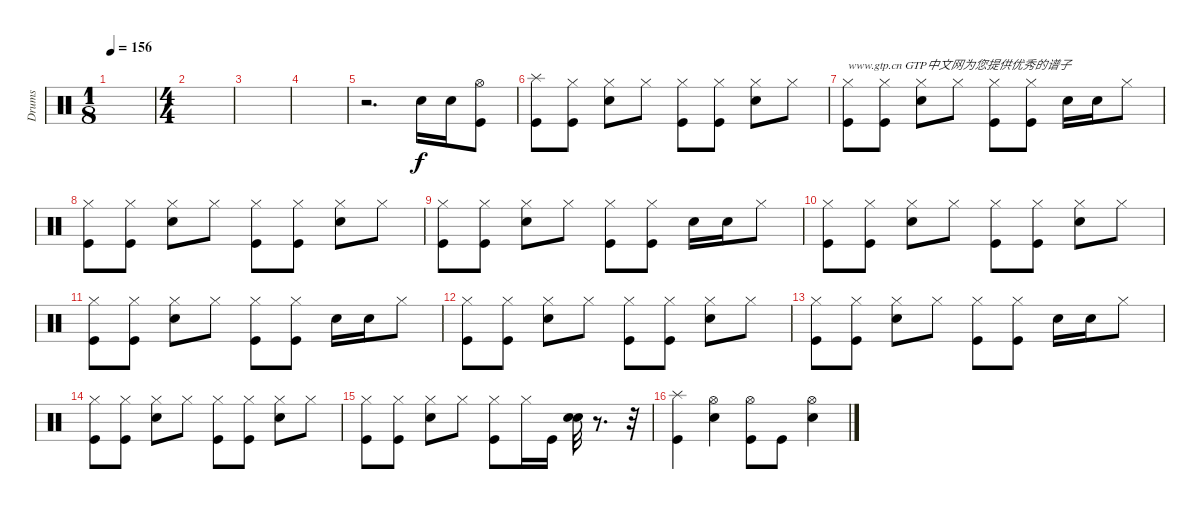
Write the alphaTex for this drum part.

\track ("Drums" "Drums") {instrument percussion}
\staff {score}
\articulation defaults
\ts (1 8)
\tempo 156
\clef neutral
\ks c
|
\ts (4 4)
|
|
|
r.2{d} "Snare (hit) 2".16 "Snare (hit) 2".16 ("Hi-Hat (open)" "Kick (hit)").8 |
("Splash (hit)" "Kick (hit)").8{dy f} ("Hi-Hat (closed)" "Kick (hit)").8 ("Hi-Hat (closed)" "Snare (hit) 2").8 "Hi-Hat (closed)".8 ("Hi-Hat (closed)" "Kick (hit)").8 ("Hi-Hat (closed)" "Kick (hit)").8 ("Hi-Hat (closed)" "Snare (hit) 2").8 "Hi-Hat (closed)".8 |
("Hi-Hat (closed)" "Kick (hit)").8{txt "www.gtp.cn GTP中文网为您提供优秀的谱子"} ("Hi-Hat (closed)" "Kick (hit)").8 ("Hi-Hat (closed)" "Snare (hit) 2").8 "Hi-Hat (closed)".8 ("Hi-Hat (closed)" "Kick (hit)").8 ("Hi-Hat (closed)" "Kick (hit)").8 "Snare (hit) 2".16 "Snare (hit) 2".16 "Hi-Hat (closed)".8 |
("Hi-Hat (closed)" "Kick (hit)").8 ("Hi-Hat (closed)" "Kick (hit)").8 ("Hi-Hat (closed)" "Snare (hit) 2").8 "Hi-Hat (closed)".8 ("Hi-Hat (closed)" "Kick (hit)").8 ("Hi-Hat (closed)" "Kick (hit)").8 ("Hi-Hat (closed)" "Snare (hit) 2").8 "Hi-Hat (closed)".8 |
("Hi-Hat (closed)" "Kick (hit)").8 ("Hi-Hat (closed)" "Kick (hit)").8 ("Hi-Hat (closed)" "Snare (hit) 2").8 "Hi-Hat (closed)".8 ("Hi-Hat (closed)" "Kick (hit)").8 ("Hi-Hat (closed)" "Kick (hit)").8 "Snare (hit) 2".16 "Snare (hit) 2".16 "Hi-Hat (closed)".8 |
("Hi-Hat (closed)" "Kick (hit)").8 ("Hi-Hat (closed)" "Kick (hit)").8 ("Hi-Hat (closed)" "Snare (hit) 2").8 "Hi-Hat (closed)".8 ("Hi-Hat (closed)" "Kick (hit)").8 ("Hi-Hat (closed)" "Kick (hit)").8 ("Hi-Hat (closed)" "Snare (hit) 2").8 "Hi-Hat (closed)".8 |
("Hi-Hat (closed)" "Kick (hit)").8 ("Hi-Hat (closed)" "Kick (hit)").8 ("Hi-Hat (closed)" "Snare (hit) 2").8 "Hi-Hat (closed)".8 ("Hi-Hat (closed)" "Kick (hit)").8 ("Hi-Hat (closed)" "Kick (hit)").8 "Snare (hit) 2".16 "Snare (hit) 2".16 "Hi-Hat (closed)".8 |
("Hi-Hat (closed)" "Kick (hit)").8 ("Hi-Hat (closed)" "Kick (hit)").8 ("Hi-Hat (closed)" "Snare (hit) 2").8 "Hi-Hat (closed)".8 ("Hi-Hat (closed)" "Kick (hit)").8 ("Hi-Hat (closed)" "Kick (hit)").8 ("Hi-Hat (closed)" "Snare (hit) 2").8 "Hi-Hat (closed)".8 |
("Hi-Hat (closed)" "Kick (hit)").8 ("Hi-Hat (closed)" "Kick (hit)").8 ("Hi-Hat (closed)" "Snare (hit) 2").8 "Hi-Hat (closed)".8 ("Hi-Hat (closed)" "Kick (hit)").8 ("Hi-Hat (closed)" "Kick (hit)").8 "Snare (hit) 2".16 "Snare (hit) 2".16 "Hi-Hat (closed)".8 |
("Hi-Hat (closed)" "Kick (hit)").8 ("Hi-Hat (closed)" "Kick (hit)").8 ("Hi-Hat (closed)" "Snare (hit) 2").8 "Hi-Hat (closed)".8 ("Hi-Hat (closed)" "Kick (hit)").8 ("Hi-Hat (closed)" "Kick (hit)").8 ("Hi-Hat (closed)" "Snare (hit) 2").8 "Hi-Hat (closed)".8 |
("Hi-Hat (closed)" "Kick (hit)").8 ("Hi-Hat (closed)" "Kick (hit)").8 ("Hi-Hat (closed)" "Snare (hit) 2").8 "Hi-Hat (closed)".8 ("Hi-Hat (closed)" "Kick (hit)").8 "Hi-Hat (closed)".16 "Kick (hit)".16 ("Snare (hit) 2" "Snare (hit) 2").32 r.8{d} r.32 |
("Splash (hit)" "Kick (hit)").4 ("Hi-Hat (open)" "Snare (hit) 2").4 ("Hi-Hat (open)" "Kick (hit)").8 "Kick (hit)".8 ("Hi-Hat (open)" "Snare (hit) 2").4
